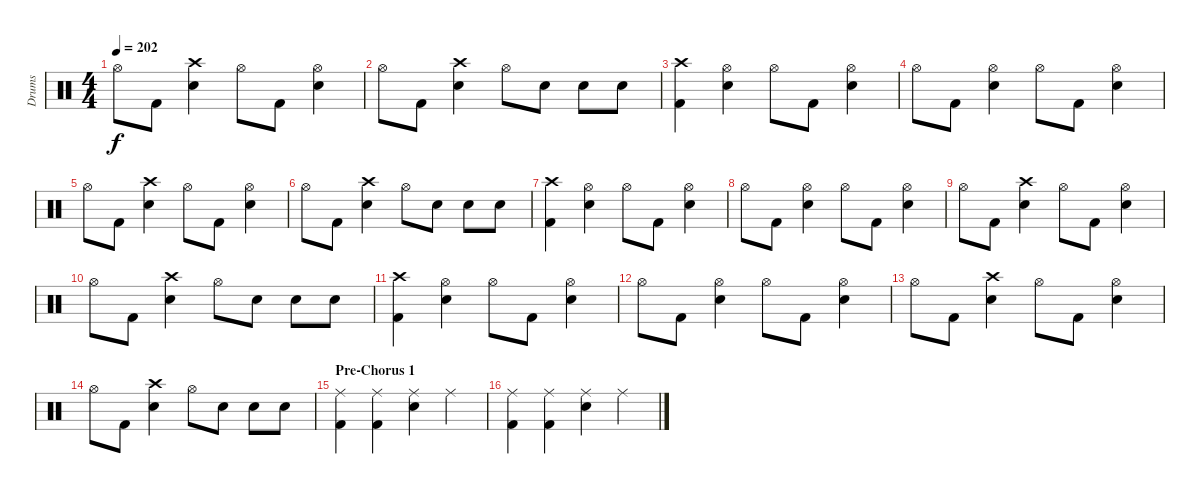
\track ("Drums" "Drums") {instrument percussion}
\staff {score}
\articulation defaults
\ts (4 4)
\tempo 202
\clef neutral
\ks c "Hi-Hat (open)".8{dy f} "Kick (hit) 2".8
("Crash high (hit)" "Electric Snare (hit)").4 "Hi-Hat (open)".8 "Kick (hit) 2".8 ("Hi-Hat (open)" "Electric Snare (hit)").4 |
"Hi-Hat (open)".8 "Kick (hit) 2".8 ("Crash high (hit)" "Electric Snare (hit)").4 "Hi-Hat (open)".8 "Electric Snare (hit)".8 "Electric Snare (hit)".8 "Electric Snare (hit)".8 |
("Crash high (hit)" "Kick (hit) 2").4 ("Hi-Hat (open)" "Electric Snare (hit)").4 "Hi-Hat (open)".8 "Kick (hit) 2".8 ("Hi-Hat (open)" "Electric Snare (hit)").4 |
"Hi-Hat (open)".8 "Kick (hit) 2".8 ("Hi-Hat (open)" "Electric Snare (hit)").4 "Hi-Hat (open)".8 "Kick (hit) 2".8 ("Hi-Hat (open)" "Electric Snare (hit)").4 |
"Hi-Hat (open)".8 "Kick (hit) 2".8 ("Crash high (hit)" "Electric Snare (hit)").4 "Hi-Hat (open)".8 "Kick (hit) 2".8 ("Hi-Hat (open)" "Electric Snare (hit)").4 |
"Hi-Hat (open)".8 "Kick (hit) 2".8 ("Crash high (hit)" "Electric Snare (hit)").4 "Hi-Hat (open)".8 "Electric Snare (hit)".8 "Electric Snare (hit)".8 "Electric Snare (hit)".8 |
("Crash high (hit)" "Kick (hit) 2").4 ("Hi-Hat (open)" "Electric Snare (hit)").4 "Hi-Hat (open)".8 "Kick (hit) 2".8 ("Hi-Hat (open)" "Electric Snare (hit)").4 |
"Hi-Hat (open)".8 "Kick (hit) 2".8 ("Hi-Hat (open)" "Electric Snare (hit)").4 "Hi-Hat (open)".8 "Kick (hit) 2".8 ("Hi-Hat (open)" "Electric Snare (hit)").4 |
"Hi-Hat (open)".8 "Kick (hit) 2".8 ("Crash high (hit)" "Electric Snare (hit)").4 "Hi-Hat (open)".8 "Kick (hit) 2".8 ("Hi-Hat (open)" "Electric Snare (hit)").4 |
"Hi-Hat (open)".8 "Kick (hit) 2".8 ("Crash high (hit)" "Electric Snare (hit)").4 "Hi-Hat (open)".8 "Electric Snare (hit)".8 "Electric Snare (hit)".8 "Electric Snare (hit)".8 |
("Crash high (hit)" "Kick (hit) 2").4 ("Hi-Hat (open)" "Electric Snare (hit)").4 "Hi-Hat (open)".8 "Kick (hit) 2".8 ("Hi-Hat (open)" "Electric Snare (hit)").4 |
"Hi-Hat (open)".8 "Kick (hit) 2".8 ("Hi-Hat (open)" "Electric Snare (hit)").4 "Hi-Hat (open)".8 "Kick (hit) 2".8 ("Hi-Hat (open)" "Electric Snare (hit)").4 |
"Hi-Hat (open)".8 "Kick (hit) 2".8 ("Crash high (hit)" "Electric Snare (hit)").4 "Hi-Hat (open)".8 "Kick (hit) 2".8 ("Hi-Hat (open)" "Electric Snare (hit)").4 |
"Hi-Hat (open)".8 "Kick (hit) 2".8 ("Crash high (hit)" "Electric Snare (hit)").4 "Hi-Hat (open)".8 "Electric Snare (hit)".8 "Electric Snare (hit)".8 "Electric Snare (hit)".8 |
\section ("" "Pre-Chorus 1")
("Ride (middle)" "Kick (hit) 2").4 ("Ride (middle)" "Kick (hit) 2").4 ("Ride (middle)" "Electric Snare (hit)").4 "Ride (middle)".4 |
("Ride (middle)" "Kick (hit) 2").4 ("Ride (middle)" "Kick (hit) 2").4 ("Ride (middle)" "Electric Snare (hit)").4 "Ride (middle)".4
